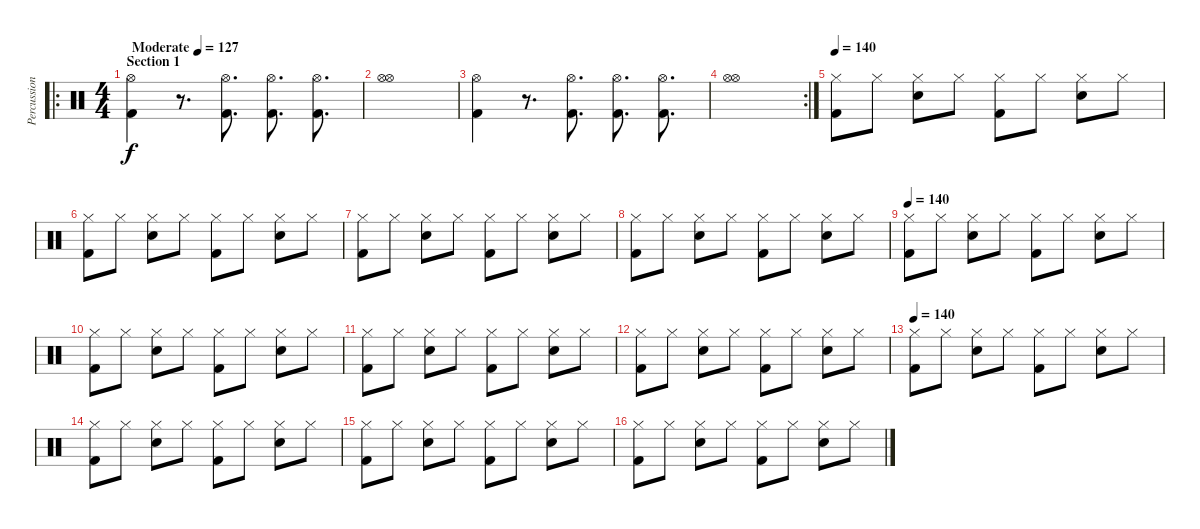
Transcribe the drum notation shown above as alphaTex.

\track ("Percussion" "Percussion") {instrument percussion}
\staff {score}
\articulation defaults
\ro
\ts (4 4)
\section ("" "Section 1")
\tempo (127 "Moderate")
\clef neutral
\ks c
("Hi-Hat (open)" "Kick (hit) 2").4{dy f} r.8{d} ("Hi-Hat (open)" "Kick (hit) 2").8{d} ("Hi-Hat (open)" "Kick (hit) 2").8{d} ("Hi-Hat (open)" "Kick (hit) 2").8{d} |
("Hi-Hat (open)" "Hi-Hat (open)").1 |
("Hi-Hat (open)" "Kick (hit) 2").4 r.8{d} ("Hi-Hat (open)" "Kick (hit) 2").8{d} ("Hi-Hat (open)" "Kick (hit) 2").8{d} ("Hi-Hat (open)" "Kick (hit) 2").8{d} |
\rc 2
("Hi-Hat (open)" "Hi-Hat (open)").1 |
\tempo 140
("Hi-Hat (closed)" "Kick (hit) 2").8 "Hi-Hat (closed)".8 ("Hi-Hat (closed)" "Snare (hit) 2").8 "Hi-Hat (closed)".8 ("Hi-Hat (closed)" "Kick (hit) 2").8 "Hi-Hat (closed)".8 ("Hi-Hat (closed)" "Snare (hit) 2").8 "Hi-Hat (closed)".8 |
("Hi-Hat (closed)" "Kick (hit) 2").8 "Hi-Hat (closed)".8 ("Hi-Hat (closed)" "Snare (hit) 2").8 "Hi-Hat (closed)".8 ("Hi-Hat (closed)" "Kick (hit) 2").8 "Hi-Hat (closed)".8 ("Hi-Hat (closed)" "Snare (hit) 2").8 "Hi-Hat (closed)".8 |
("Hi-Hat (closed)" "Kick (hit) 2").8 "Hi-Hat (closed)".8 ("Hi-Hat (closed)" "Snare (hit) 2").8 "Hi-Hat (closed)".8 ("Hi-Hat (closed)" "Kick (hit) 2").8 "Hi-Hat (closed)".8 ("Hi-Hat (closed)" "Snare (hit) 2").8 "Hi-Hat (closed)".8 |
("Hi-Hat (closed)" "Kick (hit) 2").8 "Hi-Hat (closed)".8 ("Hi-Hat (closed)" "Snare (hit) 2").8 "Hi-Hat (closed)".8 ("Hi-Hat (closed)" "Kick (hit) 2").8 "Hi-Hat (closed)".8 ("Hi-Hat (closed)" "Snare (hit) 2").8 "Hi-Hat (closed)".8 |
\tempo 140
("Hi-Hat (closed)" "Kick (hit) 2").8 "Hi-Hat (closed)".8 ("Hi-Hat (closed)" "Snare (hit) 2").8 "Hi-Hat (closed)".8 ("Hi-Hat (closed)" "Kick (hit) 2").8 "Hi-Hat (closed)".8 ("Hi-Hat (closed)" "Snare (hit) 2").8 "Hi-Hat (closed)".8 |
("Hi-Hat (closed)" "Kick (hit) 2").8 "Hi-Hat (closed)".8 ("Hi-Hat (closed)" "Snare (hit) 2").8 "Hi-Hat (closed)".8 ("Hi-Hat (closed)" "Kick (hit) 2").8 "Hi-Hat (closed)".8 ("Hi-Hat (closed)" "Snare (hit) 2").8 "Hi-Hat (closed)".8 |
("Hi-Hat (closed)" "Kick (hit) 2").8 "Hi-Hat (closed)".8 ("Hi-Hat (closed)" "Snare (hit) 2").8 "Hi-Hat (closed)".8 ("Hi-Hat (closed)" "Kick (hit) 2").8 "Hi-Hat (closed)".8 ("Hi-Hat (closed)" "Snare (hit) 2").8 "Hi-Hat (closed)".8 |
("Hi-Hat (closed)" "Kick (hit) 2").8 "Hi-Hat (closed)".8 ("Hi-Hat (closed)" "Snare (hit) 2").8 "Hi-Hat (closed)".8 ("Hi-Hat (closed)" "Kick (hit) 2").8 "Hi-Hat (closed)".8 ("Hi-Hat (closed)" "Snare (hit) 2").8 "Hi-Hat (closed)".8 |
\tempo 140
("Hi-Hat (closed)" "Kick (hit) 2").8 "Hi-Hat (closed)".8 ("Hi-Hat (closed)" "Snare (hit) 2").8 "Hi-Hat (closed)".8 ("Hi-Hat (closed)" "Kick (hit) 2").8 "Hi-Hat (closed)".8 ("Hi-Hat (closed)" "Snare (hit) 2").8 "Hi-Hat (closed)".8 |
("Hi-Hat (closed)" "Kick (hit) 2").8 "Hi-Hat (closed)".8 ("Hi-Hat (closed)" "Snare (hit) 2").8 "Hi-Hat (closed)".8 ("Hi-Hat (closed)" "Kick (hit) 2").8 "Hi-Hat (closed)".8 ("Hi-Hat (closed)" "Snare (hit) 2").8 "Hi-Hat (closed)".8 |
("Hi-Hat (closed)" "Kick (hit) 2").8 "Hi-Hat (closed)".8 ("Hi-Hat (closed)" "Snare (hit) 2").8 "Hi-Hat (closed)".8 ("Hi-Hat (closed)" "Kick (hit) 2").8 "Hi-Hat (closed)".8 ("Hi-Hat (closed)" "Snare (hit) 2").8 "Hi-Hat (closed)".8 |
("Hi-Hat (closed)" "Kick (hit) 2").8 "Hi-Hat (closed)".8 ("Hi-Hat (closed)" "Snare (hit) 2").8 "Hi-Hat (closed)".8 ("Hi-Hat (closed)" "Kick (hit) 2").8 "Hi-Hat (closed)".8 ("Hi-Hat (closed)" "Snare (hit) 2").8 "Hi-Hat (closed)".8
